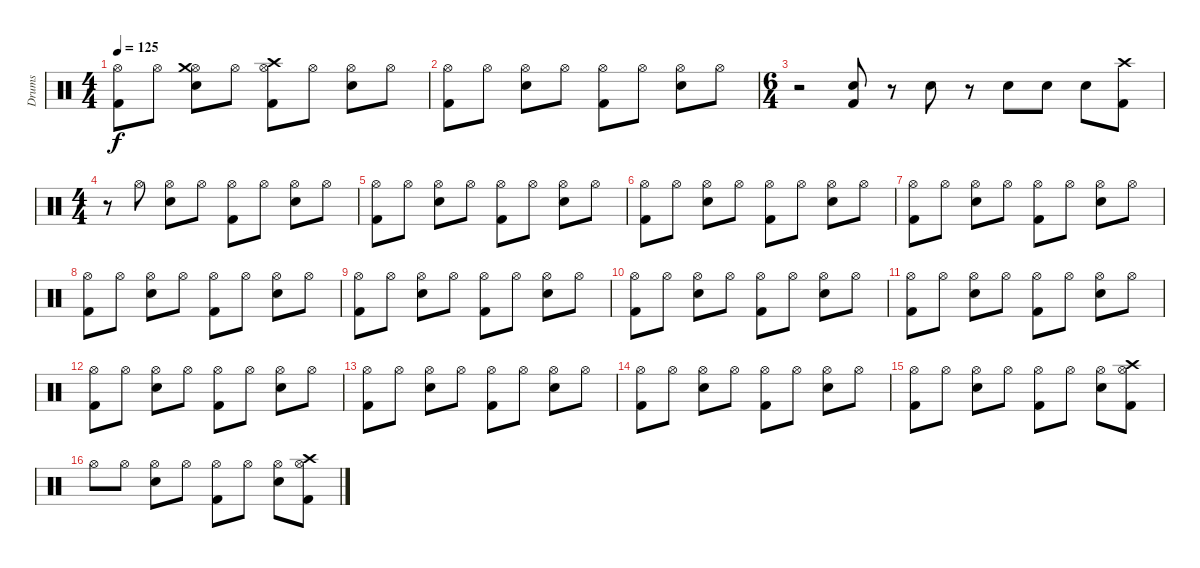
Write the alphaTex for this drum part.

\track ("Drums" "Drums") {instrument percussion}
\staff {score}
\articulation defaults
\ts (4 4)
\tempo 125
\clef neutral
\ks c
("Kick (hit) 2" "Hi-Hat (open)").8{dy f} "Hi-Hat (open)".8 ("Electric Snare (hit)" "Hi-Hat (open)" "Crash medium (hit)").8 "Hi-Hat (open)".8 ("Kick (hit) 2" "Hi-Hat (open)" "Crash high (hit)").8 "Hi-Hat (open)".8 ("Electric Snare (hit)" "Hi-Hat (open)").8 "Hi-Hat (open)".8 |
("Kick (hit) 2" "Hi-Hat (open)").8 "Hi-Hat (open)".8 ("Electric Snare (hit)" "Hi-Hat (open)").8 "Hi-Hat (open)".8 ("Kick (hit) 2" "Hi-Hat (open)").8 "Hi-Hat (open)".8 ("Electric Snare (hit)" "Hi-Hat (open)").8 "Hi-Hat (open)".8 |
\ts (6 4)
r.2 ("Kick (hit) 2" "Electric Snare (hit)").8 r.8 "Electric Snare (hit)".8 r.8 "Electric Snare (hit)".8 "Electric Snare (hit)".8 "Electric Snare (hit)".8 ("Kick (hit) 2" "Crash high (hit)").8 |
\ts (4 4)
r.8 "Hi-Hat (open)".8 ("Electric Snare (hit)" "Hi-Hat (open)").8 "Hi-Hat (open)".8 ("Kick (hit) 2" "Hi-Hat (open)").8 "Hi-Hat (open)".8 ("Electric Snare (hit)" "Hi-Hat (open)").8 "Hi-Hat (open)".8 |
("Kick (hit) 2" "Hi-Hat (open)").8 "Hi-Hat (open)".8 ("Electric Snare (hit)" "Hi-Hat (open)").8 "Hi-Hat (open)".8 ("Kick (hit) 2" "Hi-Hat (open)").8 "Hi-Hat (open)".8 ("Electric Snare (hit)" "Hi-Hat (open)").8 "Hi-Hat (open)".8 |
("Kick (hit) 2" "Hi-Hat (open)").8 "Hi-Hat (open)".8 ("Electric Snare (hit)" "Hi-Hat (open)").8 "Hi-Hat (open)".8 ("Kick (hit) 2" "Hi-Hat (open)").8 "Hi-Hat (open)".8 ("Electric Snare (hit)" "Hi-Hat (open)").8 "Hi-Hat (open)".8 |
("Kick (hit) 2" "Hi-Hat (open)").8 "Hi-Hat (open)".8 ("Electric Snare (hit)" "Hi-Hat (open)").8 "Hi-Hat (open)".8 ("Kick (hit) 2" "Hi-Hat (open)").8 "Hi-Hat (open)".8 ("Electric Snare (hit)" "Hi-Hat (open)").8 "Hi-Hat (open)".8 |
("Kick (hit) 2" "Hi-Hat (open)").8 "Hi-Hat (open)".8 ("Electric Snare (hit)" "Hi-Hat (open)").8 "Hi-Hat (open)".8 ("Kick (hit) 2" "Hi-Hat (open)").8 "Hi-Hat (open)".8 ("Electric Snare (hit)" "Hi-Hat (open)").8 "Hi-Hat (open)".8 |
("Kick (hit) 2" "Hi-Hat (open)").8 "Hi-Hat (open)".8 ("Electric Snare (hit)" "Hi-Hat (open)").8 "Hi-Hat (open)".8 ("Kick (hit) 2" "Hi-Hat (open)").8 "Hi-Hat (open)".8 ("Electric Snare (hit)" "Hi-Hat (open)").8 "Hi-Hat (open)".8 |
("Kick (hit) 2" "Hi-Hat (open)").8 "Hi-Hat (open)".8 ("Electric Snare (hit)" "Hi-Hat (open)").8 "Hi-Hat (open)".8 ("Kick (hit) 2" "Hi-Hat (open)").8 "Hi-Hat (open)".8 ("Electric Snare (hit)" "Hi-Hat (open)").8 "Hi-Hat (open)".8 |
("Kick (hit) 2" "Hi-Hat (open)").8 "Hi-Hat (open)".8 ("Electric Snare (hit)" "Hi-Hat (open)").8 "Hi-Hat (open)".8 ("Kick (hit) 2" "Hi-Hat (open)").8 "Hi-Hat (open)".8 ("Electric Snare (hit)" "Hi-Hat (open)").8 "Hi-Hat (open)".8 |
("Kick (hit) 2" "Hi-Hat (open)").8 "Hi-Hat (open)".8 ("Electric Snare (hit)" "Hi-Hat (open)").8 "Hi-Hat (open)".8 ("Kick (hit) 2" "Hi-Hat (open)").8 "Hi-Hat (open)".8 ("Electric Snare (hit)" "Hi-Hat (open)").8 "Hi-Hat (open)".8 |
("Kick (hit) 2" "Hi-Hat (open)").8 "Hi-Hat (open)".8 ("Electric Snare (hit)" "Hi-Hat (open)").8 "Hi-Hat (open)".8 ("Kick (hit) 2" "Hi-Hat (open)").8 "Hi-Hat (open)".8 ("Electric Snare (hit)" "Hi-Hat (open)").8 "Hi-Hat (open)".8 |
("Kick (hit) 2" "Hi-Hat (open)").8 "Hi-Hat (open)".8 ("Electric Snare (hit)" "Hi-Hat (open)").8 "Hi-Hat (open)".8 ("Kick (hit) 2" "Hi-Hat (open)").8 "Hi-Hat (open)".8 ("Electric Snare (hit)" "Hi-Hat (open)").8 "Hi-Hat (open)".8 |
("Kick (hit) 2" "Hi-Hat (open)").8 "Hi-Hat (open)".8 ("Electric Snare (hit)" "Hi-Hat (open)").8 "Hi-Hat (open)".8 ("Kick (hit) 2" "Hi-Hat (open)").8 "Hi-Hat (open)".8 ("Electric Snare (hit)" "Hi-Hat (open)").8 ("Kick (hit) 2" "Hi-Hat (open)" "Crash high (hit)").8 |
"Hi-Hat (open)".8 "Hi-Hat (open)".8 ("Electric Snare (hit)" "Hi-Hat (open)").8 "Hi-Hat (open)".8 ("Kick (hit) 2" "Hi-Hat (open)").8 "Hi-Hat (open)".8 ("Electric Snare (hit)" "Hi-Hat (open)").8 ("Kick (hit) 2" "Hi-Hat (open)" "Crash high (hit)").8
